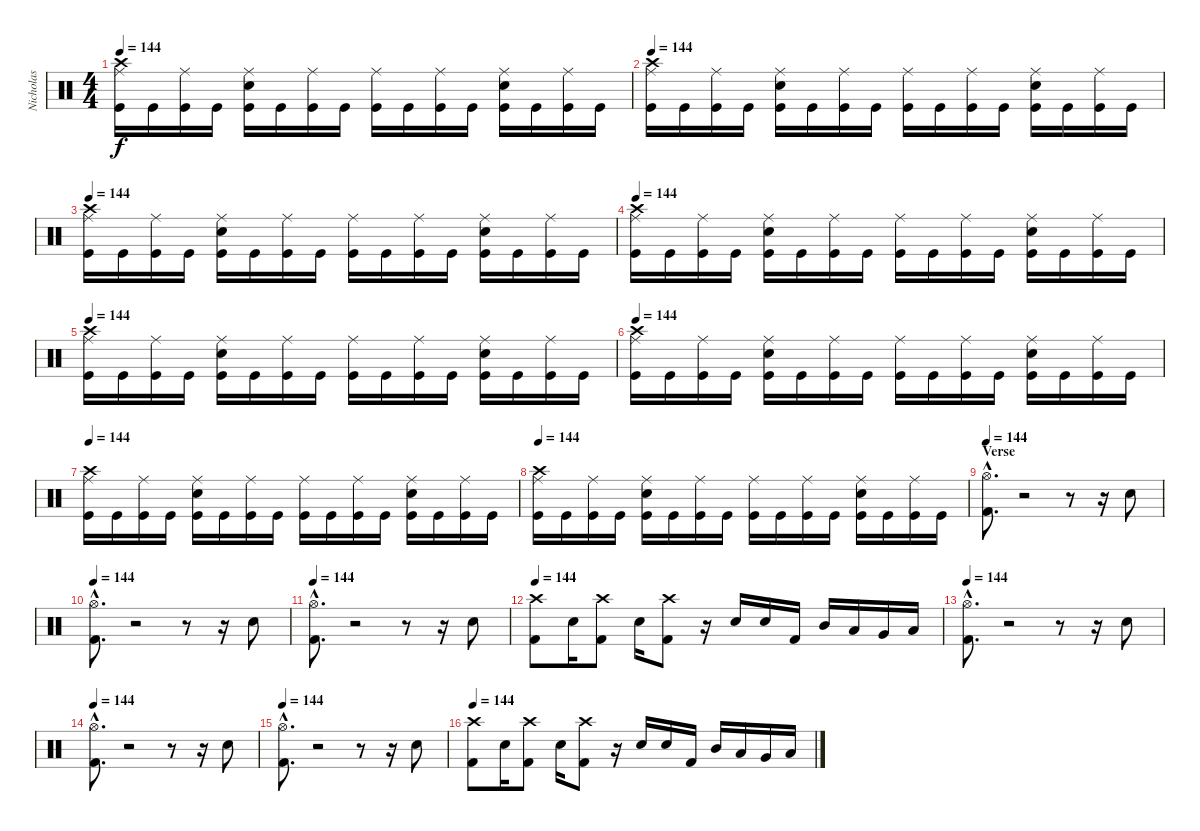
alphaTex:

\track ("Nicholas" "Nicholas") {instrument percussion}
\staff {score}
\articulation defaults
\ts (4 4)
\tempo 144
\clef neutral
\ks c
("Kick (hit)" "Ride (middle)" "Crash high (hit)").16{dy f} "Kick (hit)".16 ("Kick (hit)" "Ride (middle)").16 "Kick (hit)".16 ("Kick (hit)" "Snare (hit) 2" "Ride (middle)").16 "Kick (hit)".16 ("Kick (hit)" "Ride (middle)").16 "Kick (hit)".16 ("Kick (hit)" "Ride (middle)").16 "Kick (hit)".16 ("Kick (hit)" "Ride (middle)").16 "Kick (hit)".16 ("Kick (hit)" "Snare (hit) 2" "Ride (middle)").16 "Kick (hit)".16 ("Kick (hit)" "Ride (middle)").16 "Kick (hit)".16 |
\tempo 144
("Kick (hit)" "Ride (middle)" "Crash high (hit)").16 "Kick (hit)".16 ("Kick (hit)" "Ride (middle)").16 "Kick (hit)".16 ("Kick (hit)" "Snare (hit) 2" "Ride (middle)").16 "Kick (hit)".16 ("Kick (hit)" "Ride (middle)").16 "Kick (hit)".16 ("Kick (hit)" "Ride (middle)").16 "Kick (hit)".16 ("Kick (hit)" "Ride (middle)").16 "Kick (hit)".16 ("Kick (hit)" "Snare (hit) 2" "Ride (middle)").16 "Kick (hit)".16 ("Kick (hit)" "Ride (middle)").16 "Kick (hit)".16 |
\tempo 144
("Kick (hit)" "Ride (middle)" "Crash high (hit)").16 "Kick (hit)".16 ("Kick (hit)" "Ride (middle)").16 "Kick (hit)".16 ("Kick (hit)" "Snare (hit) 2" "Ride (middle)").16 "Kick (hit)".16 ("Kick (hit)" "Ride (middle)").16 "Kick (hit)".16 ("Kick (hit)" "Ride (middle)").16 "Kick (hit)".16 ("Kick (hit)" "Ride (middle)").16 "Kick (hit)".16 ("Kick (hit)" "Snare (hit) 2" "Ride (middle)").16 "Kick (hit)".16 ("Kick (hit)" "Ride (middle)").16 "Kick (hit)".16 |
\tempo 144
("Kick (hit)" "Ride (middle)" "Crash high (hit)").16 "Kick (hit)".16 ("Kick (hit)" "Ride (middle)").16 "Kick (hit)".16 ("Kick (hit)" "Snare (hit) 2" "Ride (middle)").16 "Kick (hit)".16 ("Kick (hit)" "Ride (middle)").16 "Kick (hit)".16 ("Kick (hit)" "Ride (middle)").16 "Kick (hit)".16 ("Kick (hit)" "Ride (middle)").16 "Kick (hit)".16 ("Kick (hit)" "Snare (hit) 2" "Ride (middle)").16 "Kick (hit)".16 ("Kick (hit)" "Ride (middle)").16 "Kick (hit)".16 |
\tempo 144
("Kick (hit)" "Ride (middle)" "Crash high (hit)").16 "Kick (hit)".16 ("Kick (hit)" "Ride (middle)").16 "Kick (hit)".16 ("Kick (hit)" "Snare (hit) 2" "Ride (middle)").16 "Kick (hit)".16 ("Kick (hit)" "Ride (middle)").16 "Kick (hit)".16 ("Kick (hit)" "Ride (middle)").16 "Kick (hit)".16 ("Kick (hit)" "Ride (middle)").16 "Kick (hit)".16 ("Kick (hit)" "Snare (hit) 2" "Ride (middle)").16 "Kick (hit)".16 ("Kick (hit)" "Ride (middle)").16 "Kick (hit)".16 |
\tempo 144
("Kick (hit)" "Ride (middle)" "Crash high (hit)").16 "Kick (hit)".16 ("Kick (hit)" "Ride (middle)").16 "Kick (hit)".16 ("Kick (hit)" "Snare (hit) 2" "Ride (middle)").16 "Kick (hit)".16 ("Kick (hit)" "Ride (middle)").16 "Kick (hit)".16 ("Kick (hit)" "Ride (middle)").16 "Kick (hit)".16 ("Kick (hit)" "Ride (middle)").16 "Kick (hit)".16 ("Kick (hit)" "Snare (hit) 2" "Ride (middle)").16 "Kick (hit)".16 ("Kick (hit)" "Ride (middle)").16 "Kick (hit)".16 |
\tempo 144
("Kick (hit)" "Ride (middle)" "Crash high (hit)").16 "Kick (hit)".16 ("Kick (hit)" "Ride (middle)").16 "Kick (hit)".16 ("Kick (hit)" "Snare (hit) 2" "Ride (middle)").16 "Kick (hit)".16 ("Kick (hit)" "Ride (middle)").16 "Kick (hit)".16 ("Kick (hit)" "Ride (middle)").16 "Kick (hit)".16 ("Kick (hit)" "Ride (middle)").16 "Kick (hit)".16 ("Kick (hit)" "Snare (hit) 2" "Ride (middle)").16 "Kick (hit)".16 ("Kick (hit)" "Ride (middle)").16 "Kick (hit)".16 |
\tempo 144
("Kick (hit)" "Ride (middle)" "Crash high (hit)").16 "Kick (hit)".16 ("Kick (hit)" "Ride (middle)").16 "Kick (hit)".16 ("Kick (hit)" "Snare (hit) 2" "Ride (middle)").16 "Kick (hit)".16 ("Kick (hit)" "Ride (middle)").16 "Kick (hit)".16 ("Kick (hit)" "Ride (middle)").16 "Kick (hit)".16 ("Kick (hit)" "Ride (middle)").16 "Kick (hit)".16 ("Kick (hit)" "Snare (hit) 2" "Ride (middle)").16 "Kick (hit)".16 ("Kick (hit)" "Ride (middle)").16 "Kick (hit)".16 |
\section ("" "Verse")
\tempo 144
("Kick (hit) 2"{hac} "Hi-Hat (open)"{hac}).8{d} r.2 r.8 r.16 "Snare (hit) 2".8 |
\tempo 144
("Kick (hit) 2"{hac} "Hi-Hat (open)"{hac}).8{d} r.2 r.8 r.16 "Snare (hit) 2".8 |
\tempo 144
("Kick (hit) 2"{hac} "Hi-Hat (open)"{hac}).8{d} r.2 r.8 r.16 "Snare (hit) 2".8 |
\tempo 144
("Kick (hit) 2" "Crash high (hit)").8 "Snare (hit) 2".16 ("Kick (hit) 2" "Crash high (hit)").8 "Snare (hit) 2".16 ("Kick (hit) 2" "Crash high (hit)").8 r.16 "Snare (hit) 2".16 "Snare (hit) 2".16 "Kick (hit) 2".16 "Mid Tom (hit)".16 "Low Tom (hit)".16 "Very Low Tom (hit)".16 "Low Floor Tom (hit)".16 |
\tempo 144
("Kick (hit) 2"{hac} "Hi-Hat (open)"{hac}).8{d} r.2 r.8 r.16 "Snare (hit) 2".8 |
\tempo 144
("Kick (hit) 2"{hac} "Hi-Hat (open)"{hac}).8{d} r.2 r.8 r.16 "Snare (hit) 2".8 |
\tempo 144
("Kick (hit) 2"{hac} "Hi-Hat (open)"{hac}).8{d} r.2 r.8 r.16 "Snare (hit) 2".8 |
\tempo 144
("Kick (hit) 2" "Crash high (hit)").8 "Snare (hit) 2".16 ("Kick (hit) 2" "Crash high (hit)").8 "Snare (hit) 2".16 ("Kick (hit) 2" "Crash high (hit)").8 r.16 "Snare (hit) 2".16 "Snare (hit) 2".16 "Kick (hit) 2".16 "Mid Tom (hit)".16 "Low Tom (hit)".16 "Very Low Tom (hit)".16 "Low Floor Tom (hit)".16
